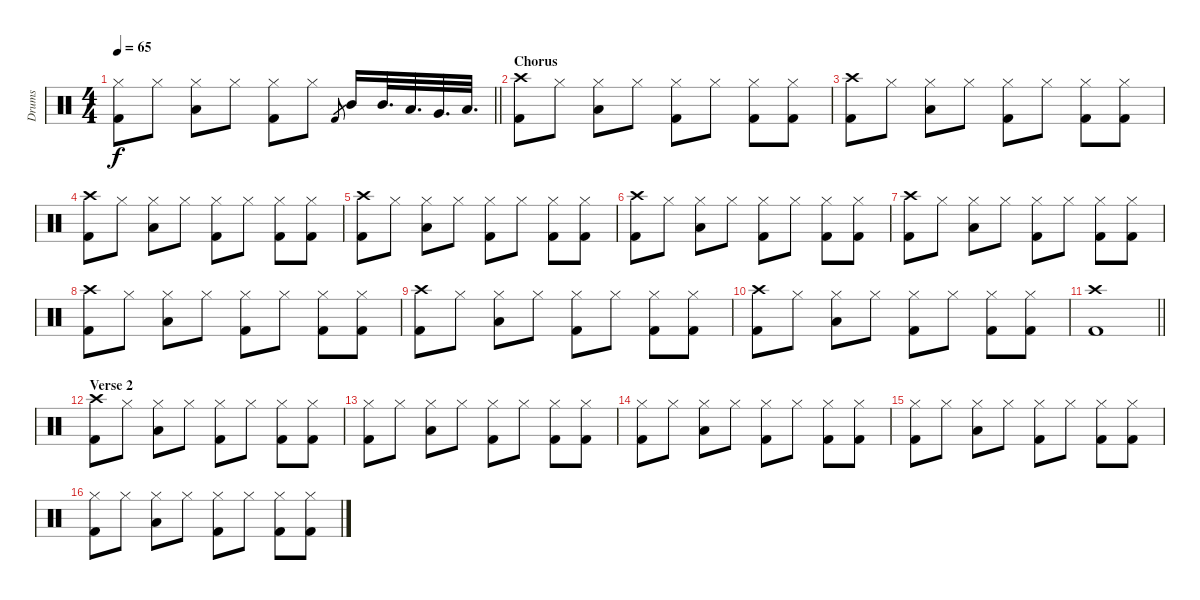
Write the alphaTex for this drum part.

\track ("Drums" "Drums") {instrument percussion}
\staff {score}
\articulation defaults
\ts (4 4)
\tempo 65
\clef neutral
\barLineRight lightlight
\ks c
("Hi-Hat (closed)" "Kick (hit) 2").8{dy f} "Hi-Hat (closed)".8 ("Hi-Hat (closed)" "Low Floor Tom (hit)").8 "Hi-Hat (closed)".8 ("Hi-Hat (closed)" "Kick (hit) 2").8 "Hi-Hat (closed)".8 "Kick (hit) 2".8{gr} "Mid Tom (hit)".16 "Mid Tom (hit)".32{d} "Low Tom (hit)".32{d} "Very Low Tom (hit)".32{d} "Low Floor Tom (hit)".32{d} |
\section ("" "Chorus")
("Crash high (hit)" "Kick (hit) 2").8 "Hi-Hat (closed)".8 ("Hi-Hat (closed)" "Low Floor Tom (hit)").8 "Hi-Hat (closed)".8 ("Hi-Hat (closed)" "Kick (hit) 2").8 "Hi-Hat (closed)".8 ("Hi-Hat (closed)" "Kick (hit) 2").8 ("Hi-Hat (closed)" "Kick (hit) 2").8 |
("Crash high (hit)" "Kick (hit) 2").8 "Hi-Hat (closed)".8 ("Hi-Hat (closed)" "Low Floor Tom (hit)").8 "Hi-Hat (closed)".8 ("Hi-Hat (closed)" "Kick (hit) 2").8 "Hi-Hat (closed)".8 ("Hi-Hat (closed)" "Kick (hit) 2").8 ("Hi-Hat (closed)" "Kick (hit) 2").8 |
("Crash high (hit)" "Kick (hit) 2").8 "Hi-Hat (closed)".8 ("Hi-Hat (closed)" "Low Floor Tom (hit)").8 "Hi-Hat (closed)".8 ("Hi-Hat (closed)" "Kick (hit) 2").8 "Hi-Hat (closed)".8 ("Hi-Hat (closed)" "Kick (hit) 2").8 ("Hi-Hat (closed)" "Kick (hit) 2").8 |
("Crash high (hit)" "Kick (hit) 2").8 "Hi-Hat (closed)".8 ("Hi-Hat (closed)" "Low Floor Tom (hit)").8 "Hi-Hat (closed)".8 ("Hi-Hat (closed)" "Kick (hit) 2").8 "Hi-Hat (closed)".8 ("Hi-Hat (closed)" "Kick (hit) 2").8 ("Hi-Hat (closed)" "Kick (hit) 2").8 |
("Crash high (hit)" "Kick (hit) 2").8 "Hi-Hat (closed)".8 ("Hi-Hat (closed)" "Low Floor Tom (hit)").8 "Hi-Hat (closed)".8 ("Hi-Hat (closed)" "Kick (hit) 2").8 "Hi-Hat (closed)".8 ("Hi-Hat (closed)" "Kick (hit) 2").8 ("Hi-Hat (closed)" "Kick (hit) 2").8 |
("Crash high (hit)" "Kick (hit) 2").8 "Hi-Hat (closed)".8 ("Hi-Hat (closed)" "Low Floor Tom (hit)").8 "Hi-Hat (closed)".8 ("Hi-Hat (closed)" "Kick (hit) 2").8 "Hi-Hat (closed)".8 ("Hi-Hat (closed)" "Kick (hit) 2").8 ("Hi-Hat (closed)" "Kick (hit) 2").8 |
("Crash high (hit)" "Kick (hit) 2").8 "Hi-Hat (closed)".8 ("Hi-Hat (closed)" "Low Floor Tom (hit)").8 "Hi-Hat (closed)".8 ("Hi-Hat (closed)" "Kick (hit) 2").8 "Hi-Hat (closed)".8 ("Hi-Hat (closed)" "Kick (hit) 2").8 ("Hi-Hat (closed)" "Kick (hit) 2").8 |
("Crash high (hit)" "Kick (hit) 2").8 "Hi-Hat (closed)".8 ("Hi-Hat (closed)" "Low Floor Tom (hit)").8 "Hi-Hat (closed)".8 ("Hi-Hat (closed)" "Kick (hit) 2").8 "Hi-Hat (closed)".8 ("Hi-Hat (closed)" "Kick (hit) 2").8 ("Hi-Hat (closed)" "Kick (hit) 2").8 |
("Crash high (hit)" "Kick (hit) 2").8 "Hi-Hat (closed)".8 ("Hi-Hat (closed)" "Low Floor Tom (hit)").8 "Hi-Hat (closed)".8 ("Hi-Hat (closed)" "Kick (hit) 2").8 "Hi-Hat (closed)".8 ("Hi-Hat (closed)" "Kick (hit) 2").8 ("Hi-Hat (closed)" "Kick (hit) 2").8 |
\barLineRight lightlight
("Crash high (hit)" "Kick (hit) 2").1 |
\section ("" "Verse 2")
("Crash high (hit)" "Kick (hit) 2").8 "Hi-Hat (closed)".8 ("Hi-Hat (closed)" "Low Floor Tom (hit)").8 "Hi-Hat (closed)".8 ("Hi-Hat (closed)" "Kick (hit) 2").8 "Hi-Hat (closed)".8 ("Hi-Hat (closed)" "Kick (hit) 2").8 ("Hi-Hat (closed)" "Kick (hit) 2").8 |
("Hi-Hat (closed)" "Kick (hit) 2").8 "Hi-Hat (closed)".8 ("Hi-Hat (closed)" "Low Floor Tom (hit)").8 "Hi-Hat (closed)".8 ("Hi-Hat (closed)" "Kick (hit) 2").8 "Hi-Hat (closed)".8 ("Hi-Hat (closed)" "Kick (hit) 2").8 ("Hi-Hat (closed)" "Kick (hit) 2").8 |
("Hi-Hat (closed)" "Kick (hit) 2").8 "Hi-Hat (closed)".8 ("Hi-Hat (closed)" "Low Floor Tom (hit)").8 "Hi-Hat (closed)".8 ("Hi-Hat (closed)" "Kick (hit) 2").8 "Hi-Hat (closed)".8 ("Hi-Hat (closed)" "Kick (hit) 2").8 ("Hi-Hat (closed)" "Kick (hit) 2").8 |
("Hi-Hat (closed)" "Kick (hit) 2").8 "Hi-Hat (closed)".8 ("Hi-Hat (closed)" "Low Floor Tom (hit)").8 "Hi-Hat (closed)".8 ("Hi-Hat (closed)" "Kick (hit) 2").8 "Hi-Hat (closed)".8 ("Hi-Hat (closed)" "Kick (hit) 2").8 ("Hi-Hat (closed)" "Kick (hit) 2").8 |
("Hi-Hat (closed)" "Kick (hit) 2").8 "Hi-Hat (closed)".8 ("Hi-Hat (closed)" "Low Floor Tom (hit)").8 "Hi-Hat (closed)".8 ("Hi-Hat (closed)" "Kick (hit) 2").8 "Hi-Hat (closed)".8 ("Hi-Hat (closed)" "Kick (hit) 2").8 ("Hi-Hat (closed)" "Kick (hit) 2").8
